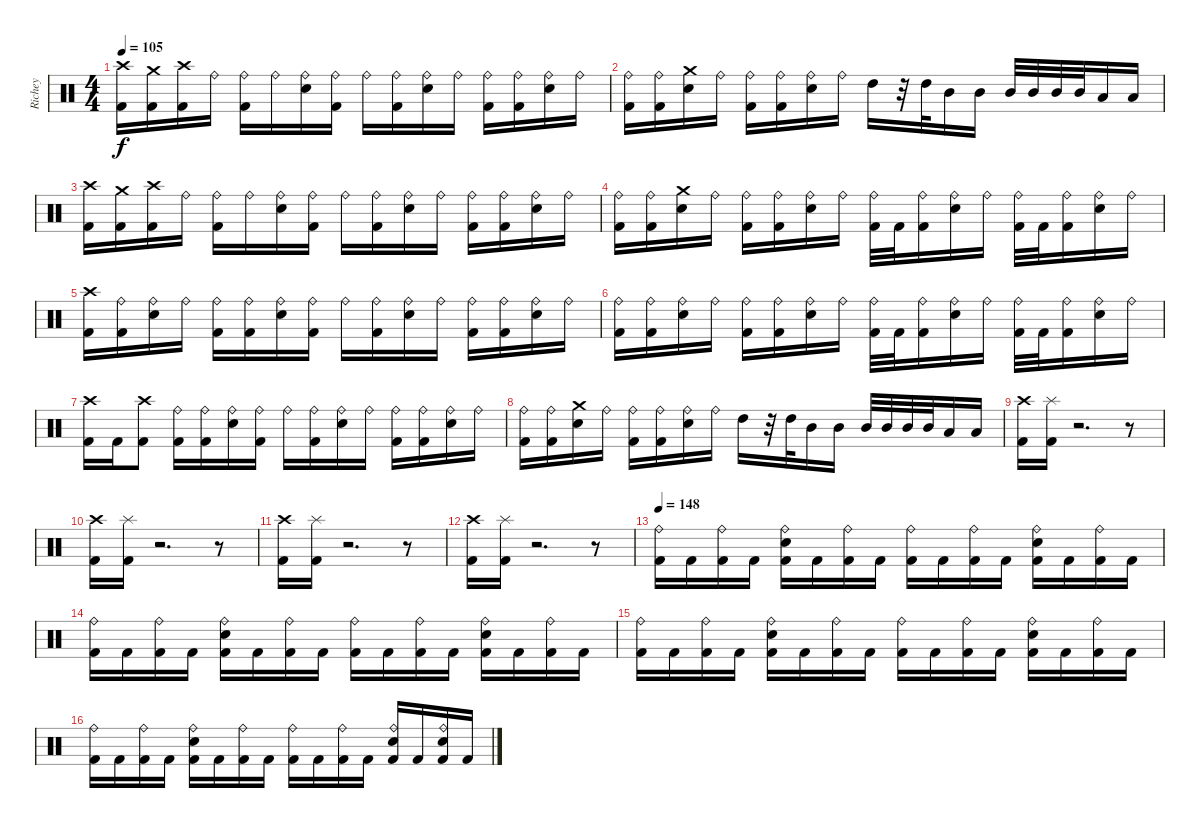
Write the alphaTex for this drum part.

\track ("Richey" "Richey") {instrument percussion}
\staff {score}
\articulation defaults
\ts (4 4)
\tempo 105
\clef neutral
\ks c
("Crash high (hit)" "Kick (hit) 2").16{dy f} ("Crash medium (hit)" "Kick (hit) 2").16 ("Crash high (hit)" "Kick (hit) 2").16 "Ride (bell)".16 ("Ride (bell)" "Kick (hit) 2").16 "Ride (bell)".16 ("Ride (bell)" "Snare (hit) 2").16 ("Ride (bell)" "Kick (hit) 2").16 "Ride (bell)".16 ("Ride (bell)" "Kick (hit) 2").16 ("Ride (bell)" "Snare (hit) 2").16 "Ride (bell)".16 ("Ride (bell)" "Kick (hit) 2").16 ("Ride (bell)" "Kick (hit) 2").16 ("Ride (bell)" "Snare (hit) 2").16 "Ride (bell)".16 |
("Ride (bell)" "Kick (hit) 2").16 ("Ride (bell)" "Kick (hit) 2").16 ("Crash medium (hit)" "Snare (hit) 2").16 "Ride (bell)".16 ("Ride (bell)" "Kick (hit) 2").16 ("Ride (bell)" "Kick (hit) 2").16 ("Ride (bell)" "Snare (hit) 2").16 "Ride (bell)".16 "High Tom (hit)".16 r.32 "High Tom (hit)".32 "Mid Tom (hit)".16 "Mid Tom (hit)".16 "Mid Tom (hit)".32 "Mid Tom (hit)".32 "Mid Tom (hit)".32 "Mid Tom (hit)".32 "Low Tom (hit)".16 "Low Tom (hit)".16 |
("Crash high (hit)" "Kick (hit) 2").16 ("Crash medium (hit)" "Kick (hit) 2").16 ("Crash high (hit)" "Kick (hit) 2").16 "Ride (bell)".16 ("Ride (bell)" "Kick (hit) 2").16 "Ride (bell)".16 ("Ride (bell)" "Snare (hit) 2").16 ("Ride (bell)" "Kick (hit) 2").16 "Ride (bell)".16 ("Ride (bell)" "Kick (hit) 2").16 ("Ride (bell)" "Snare (hit) 2").16 "Ride (bell)".16 ("Ride (bell)" "Kick (hit) 2").16 ("Ride (bell)" "Kick (hit) 2").16 ("Ride (bell)" "Snare (hit) 2").16 "Ride (bell)".16 |
("Ride (bell)" "Kick (hit) 2").16 ("Ride (bell)" "Kick (hit) 2").16 ("Crash medium (hit)" "Snare (hit) 2").16 "Ride (bell)".16 ("Ride (bell)" "Kick (hit) 2").16 ("Ride (bell)" "Kick (hit) 2").16 ("Ride (bell)" "Snare (hit) 2").16 "Ride (bell)".16 ("Ride (bell)" "Kick (hit) 2").32 "Kick (hit) 2".32 ("Ride (bell)" "Kick (hit) 2").16 ("Ride (bell)" "Snare (hit) 2").16 "Ride (bell)".16 ("Ride (bell)" "Kick (hit) 2").32 "Kick (hit) 2".32 ("Ride (bell)" "Kick (hit) 2").16 ("Ride (bell)" "Snare (hit) 2").16 "Ride (bell)".16 |
("Crash high (hit)" "Kick (hit) 2").16 ("Ride (bell)" "Kick (hit) 2").16 ("Ride (bell)" "Snare (hit) 2").16 "Ride (bell)".16 ("Ride (bell)" "Kick (hit) 2").16 ("Ride (bell)" "Kick (hit) 2").16 ("Ride (bell)" "Snare (hit) 2").16 ("Ride (bell)" "Kick (hit) 2").16 "Ride (bell)".16 ("Ride (bell)" "Kick (hit) 2").16 ("Ride (bell)" "Snare (hit) 2").16 "Ride (bell)".16 ("Ride (bell)" "Kick (hit) 2").16 ("Ride (bell)" "Kick (hit) 2").16 ("Ride (bell)" "Snare (hit) 2").16 "Ride (bell)".16 |
("Ride (bell)" "Kick (hit) 2").16 ("Ride (bell)" "Kick (hit) 2").16 ("Ride (bell)" "Snare (hit) 2").16 "Ride (bell)".16 ("Ride (bell)" "Kick (hit) 2").16 ("Ride (bell)" "Kick (hit) 2").16 ("Ride (bell)" "Snare (hit) 2").16 "Ride (bell)".16 ("Ride (bell)" "Kick (hit) 2").32 "Kick (hit) 2".32 ("Ride (bell)" "Kick (hit) 2").16 ("Ride (bell)" "Snare (hit) 2").16 "Ride (bell)".16 ("Ride (bell)" "Kick (hit) 2").32 "Kick (hit) 2".32 ("Ride (bell)" "Kick (hit) 2").16 ("Ride (bell)" "Snare (hit) 2").16 "Ride (bell)".16 |
("Crash high (hit)" "Kick (hit) 2").16 "Kick (hit) 2".16 ("Crash high (hit)" "Kick (hit) 2").8 ("Ride (bell)" "Kick (hit) 2").16 ("Ride (bell)" "Kick (hit) 2").16 ("Ride (bell)" "Snare (hit) 2").16 ("Ride (bell)" "Kick (hit) 2").16 "Ride (bell)".16 ("Ride (bell)" "Kick (hit) 2").16 ("Ride (bell)" "Snare (hit) 2").16 "Ride (bell)".16 ("Ride (bell)" "Kick (hit) 2").16 ("Ride (bell)" "Kick (hit) 2").16 ("Ride (bell)" "Snare (hit) 2").16 "Ride (bell)".16 |
("Ride (bell)" "Kick (hit) 2").16 ("Ride (bell)" "Kick (hit) 2").16 ("Crash medium (hit)" "Snare (hit) 2").16 "Ride (bell)".16 ("Ride (bell)" "Kick (hit) 2").16 ("Ride (bell)" "Kick (hit) 2").16 ("Ride (bell)" "Snare (hit) 2").16 "Ride (bell)".16 "High Tom (hit)".16 r.32 "High Tom (hit)".32 "Mid Tom (hit)".16 "Mid Tom (hit)".16 "Mid Tom (hit)".32 "Mid Tom (hit)".32 "Mid Tom (hit)".32 "Mid Tom (hit)".32 "Low Tom (hit)".16 "Low Tom (hit)".16 |
("Crash high (hit)" "Kick (hit) 2").16 ("Splash (hit)" "Kick (hit) 2").16 r.2{d} r.8 |
("Crash high (hit)" "Kick (hit) 2").16 ("Splash (hit)" "Kick (hit) 2").16 r.2{d} r.8 |
("Crash high (hit)" "Kick (hit) 2").16 ("Splash (hit)" "Kick (hit) 2").16 r.2{d} r.8 |
("Crash high (hit)" "Kick (hit) 2").16 ("Splash (hit)" "Kick (hit) 2").16 r.2{d} r.8 |
\tempo 148
("Ride (bell)" "Kick (hit) 2").16 "Kick (hit) 2".16 ("Ride (bell)" "Kick (hit) 2").16 "Kick (hit) 2".16 ("Ride (bell)" "Snare (hit) 2" "Kick (hit) 2").16 "Kick (hit) 2".16 ("Ride (bell)" "Kick (hit) 2").16 "Kick (hit) 2".16 ("Ride (bell)" "Kick (hit) 2").16 "Kick (hit) 2".16 ("Ride (bell)" "Kick (hit) 2").16 "Kick (hit) 2".16 ("Ride (bell)" "Snare (hit) 2" "Kick (hit) 2").16 "Kick (hit) 2".16 ("Ride (bell)" "Kick (hit) 2").16 "Kick (hit) 2".16 |
("Ride (bell)" "Kick (hit) 2").16 "Kick (hit) 2".16 ("Ride (bell)" "Kick (hit) 2").16 "Kick (hit) 2".16 ("Ride (bell)" "Snare (hit) 2" "Kick (hit) 2").16 "Kick (hit) 2".16 ("Ride (bell)" "Kick (hit) 2").16 "Kick (hit) 2".16 ("Ride (bell)" "Kick (hit) 2").16 "Kick (hit) 2".16 ("Ride (bell)" "Kick (hit) 2").16 "Kick (hit) 2".16 ("Ride (bell)" "Snare (hit) 2" "Kick (hit) 2").16 "Kick (hit) 2".16 ("Ride (bell)" "Kick (hit) 2").16 "Kick (hit) 2".16 |
("Ride (bell)" "Kick (hit) 2").16 "Kick (hit) 2".16 ("Ride (bell)" "Kick (hit) 2").16 "Kick (hit) 2".16 ("Ride (bell)" "Snare (hit) 2" "Kick (hit) 2").16 "Kick (hit) 2".16 ("Ride (bell)" "Kick (hit) 2").16 "Kick (hit) 2".16 ("Ride (bell)" "Kick (hit) 2").16 "Kick (hit) 2".16 ("Ride (bell)" "Kick (hit) 2").16 "Kick (hit) 2".16 ("Ride (bell)" "Snare (hit) 2" "Kick (hit) 2").16 "Kick (hit) 2".16 ("Ride (bell)" "Kick (hit) 2").16 "Kick (hit) 2".16 |
("Ride (bell)" "Kick (hit) 2").16 "Kick (hit) 2".16 ("Ride (bell)" "Kick (hit) 2").16 "Kick (hit) 2".16 ("Ride (bell)" "Snare (hit) 2" "Kick (hit) 2").16 "Kick (hit) 2".16 ("Ride (bell)" "Kick (hit) 2").16 "Kick (hit) 2".16 ("Ride (bell)" "Kick (hit) 2").16 "Kick (hit) 2".16 ("Ride (bell)" "Kick (hit) 2").16 "Kick (hit) 2".16 ("Ride (bell)" "Snare (hit) 2" "Kick (hit) 2").16 "Kick (hit) 2".16 ("Ride (bell)" "Snare (hit) 2" "Kick (hit) 2").16 "Kick (hit) 2".16
